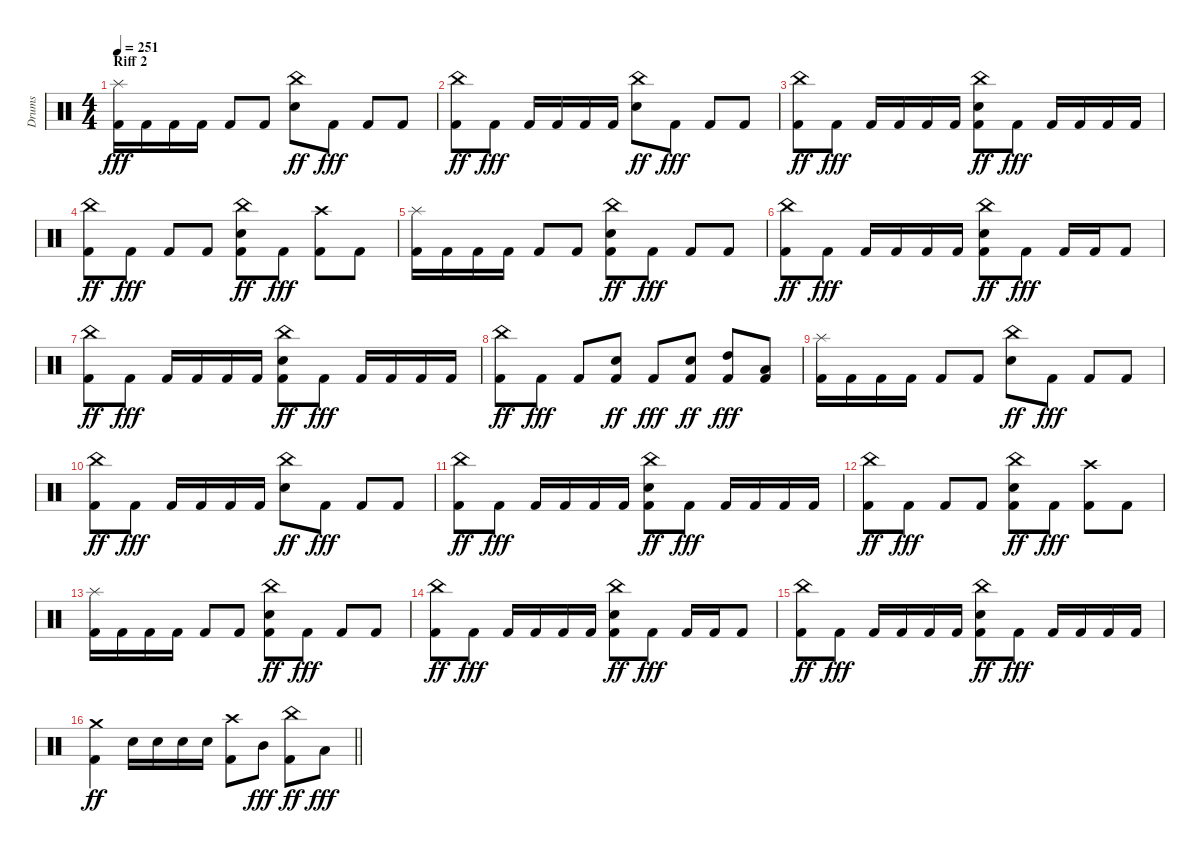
\track ("Drums" "Drums") {instrument percussion}
\staff {score}
\articulation defaults
\ts (4 4)
\section ("" "Riff 2")
\tempo 251
\clef neutral
\ks c
("Kick (hit) 2" "Splash (hit)").16{dy fff} "Kick (hit) 2".16 "Kick (hit) 2".16 "Kick (hit) 2".16 "Kick (hit) 2".8 "Kick (hit) 2".8 ("Snare (hit) 2" "China (hit)").8{dy ff} "Kick (hit) 2".8{dy fff} "Kick (hit) 2".8 "Kick (hit) 2".8 |
("Kick (hit) 2" "China (hit)").8{dy ff} "Kick (hit) 2".8{dy fff} "Kick (hit) 2".16 "Kick (hit) 2".16 "Kick (hit) 2".16 "Kick (hit) 2".16 ("Snare (hit) 2" "China (hit)").8{dy ff} "Kick (hit) 2".8{dy fff} "Kick (hit) 2".8 "Kick (hit) 2".8 |
("Kick (hit) 2" "China (hit)").8{dy ff} "Kick (hit) 2".8{dy fff} "Kick (hit) 2".16 "Kick (hit) 2".16 "Kick (hit) 2".16 "Kick (hit) 2".16 ("Kick (hit) 2" "Snare (hit) 2" "China (hit)").8{dy ff} "Kick (hit) 2".8{dy fff} "Kick (hit) 2".16 "Kick (hit) 2".16 "Kick (hit) 2".16 "Kick (hit) 2".16 |
("Kick (hit) 2" "China (hit)").8{dy ff} "Kick (hit) 2".8{dy fff} "Kick (hit) 2".8 "Kick (hit) 2".8 ("Kick (hit) 2" "Snare (hit) 2" "China (hit)").8{dy ff} "Kick (hit) 2".8{dy fff} ("Kick (hit) 2" "Crash high (hit)").8 "Kick (hit) 2".8 |
("Kick (hit) 2" "Splash (hit)").16 "Kick (hit) 2".16 "Kick (hit) 2".16 "Kick (hit) 2".16 "Kick (hit) 2".8 "Kick (hit) 2".8 ("Kick (hit) 2" "Snare (hit) 2" "China (hit)").8{dy ff} "Kick (hit) 2".8{dy fff} "Kick (hit) 2".8 "Kick (hit) 2".8 |
("Kick (hit) 2" "China (hit)").8{dy ff} "Kick (hit) 2".8{dy fff} "Kick (hit) 2".16 "Kick (hit) 2".16 "Kick (hit) 2".16 "Kick (hit) 2".16 ("Kick (hit) 2" "Snare (hit) 2" "China (hit)").8{dy ff} "Kick (hit) 2".8{dy fff} "Kick (hit) 2".16 "Kick (hit) 2".16 "Kick (hit) 2".8 |
("Kick (hit) 2" "China (hit)").8{dy ff} "Kick (hit) 2".8{dy fff} "Kick (hit) 2".16 "Kick (hit) 2".16 "Kick (hit) 2".16 "Kick (hit) 2".16 ("Kick (hit) 2" "Snare (hit) 2" "China (hit)").8{dy ff} "Kick (hit) 2".8{dy fff} "Kick (hit) 2".16 "Kick (hit) 2".16 "Kick (hit) 2".16 "Kick (hit) 2".16 |
("Kick (hit) 2" "China (hit)").8{dy ff} "Kick (hit) 2".8{dy fff} "Kick (hit) 2".8 ("Kick (hit) 2" "Snare (hit) 2").8{dy ff} "Kick (hit) 2".8{dy fff} ("Kick (hit) 2" "Snare (hit) 2").8{dy ff} ("Kick (hit) 2" "High Tom (hit)").8{dy fff} ("Kick (hit) 2" "Low Tom (hit)").8 |
("Kick (hit) 2" "Splash (hit)").16 "Kick (hit) 2".16 "Kick (hit) 2".16 "Kick (hit) 2".16 "Kick (hit) 2".8 "Kick (hit) 2".8 ("Snare (hit) 2" "China (hit)").8{dy ff} "Kick (hit) 2".8{dy fff} "Kick (hit) 2".8 "Kick (hit) 2".8 |
("Kick (hit) 2" "China (hit)").8{dy ff} "Kick (hit) 2".8{dy fff} "Kick (hit) 2".16 "Kick (hit) 2".16 "Kick (hit) 2".16 "Kick (hit) 2".16 ("Snare (hit) 2" "China (hit)").8{dy ff} "Kick (hit) 2".8{dy fff} "Kick (hit) 2".8 "Kick (hit) 2".8 |
("Kick (hit) 2" "China (hit)").8{dy ff} "Kick (hit) 2".8{dy fff} "Kick (hit) 2".16 "Kick (hit) 2".16 "Kick (hit) 2".16 "Kick (hit) 2".16 ("Kick (hit) 2" "Snare (hit) 2" "China (hit)").8{dy ff} "Kick (hit) 2".8{dy fff} "Kick (hit) 2".16 "Kick (hit) 2".16 "Kick (hit) 2".16 "Kick (hit) 2".16 |
("Kick (hit) 2" "China (hit)").8{dy ff} "Kick (hit) 2".8{dy fff} "Kick (hit) 2".8 "Kick (hit) 2".8 ("Kick (hit) 2" "Snare (hit) 2" "China (hit)").8{dy ff} "Kick (hit) 2".8{dy fff} ("Kick (hit) 2" "Crash high (hit)").8 "Kick (hit) 2".8 |
("Kick (hit) 2" "Splash (hit)").16 "Kick (hit) 2".16 "Kick (hit) 2".16 "Kick (hit) 2".16 "Kick (hit) 2".8 "Kick (hit) 2".8 ("Kick (hit) 2" "Snare (hit) 2" "China (hit)").8{dy ff} "Kick (hit) 2".8{dy fff} "Kick (hit) 2".8 "Kick (hit) 2".8 |
("Kick (hit) 2" "China (hit)").8{dy ff} "Kick (hit) 2".8{dy fff} "Kick (hit) 2".16 "Kick (hit) 2".16 "Kick (hit) 2".16 "Kick (hit) 2".16 ("Kick (hit) 2" "Snare (hit) 2" "China (hit)").8{dy ff} "Kick (hit) 2".8{dy fff} "Kick (hit) 2".16 "Kick (hit) 2".16 "Kick (hit) 2".8 |
("Kick (hit) 2" "China (hit)").8{dy ff} "Kick (hit) 2".8{dy fff} "Kick (hit) 2".16 "Kick (hit) 2".16 "Kick (hit) 2".16 "Kick (hit) 2".16 ("Kick (hit) 2" "Snare (hit) 2" "China (hit)").8{dy ff} "Kick (hit) 2".8{dy fff} "Kick (hit) 2".16 "Kick (hit) 2".16 "Kick (hit) 2".16 "Kick (hit) 2".16 |
\barLineRight lightlight
("Kick (hit) 2" "Crash medium (hit)").4{dy ff} "Snare (hit) 2".16 "Snare (hit) 2".16 "Snare (hit) 2".16 "Snare (hit) 2".16 ("Kick (hit) 2" "Crash high (hit)").8 "Mid Tom (hit)".8{dy fff} ("Kick (hit) 2" "China (hit)").8{dy ff} "Low Tom (hit)".8{dy fff}
